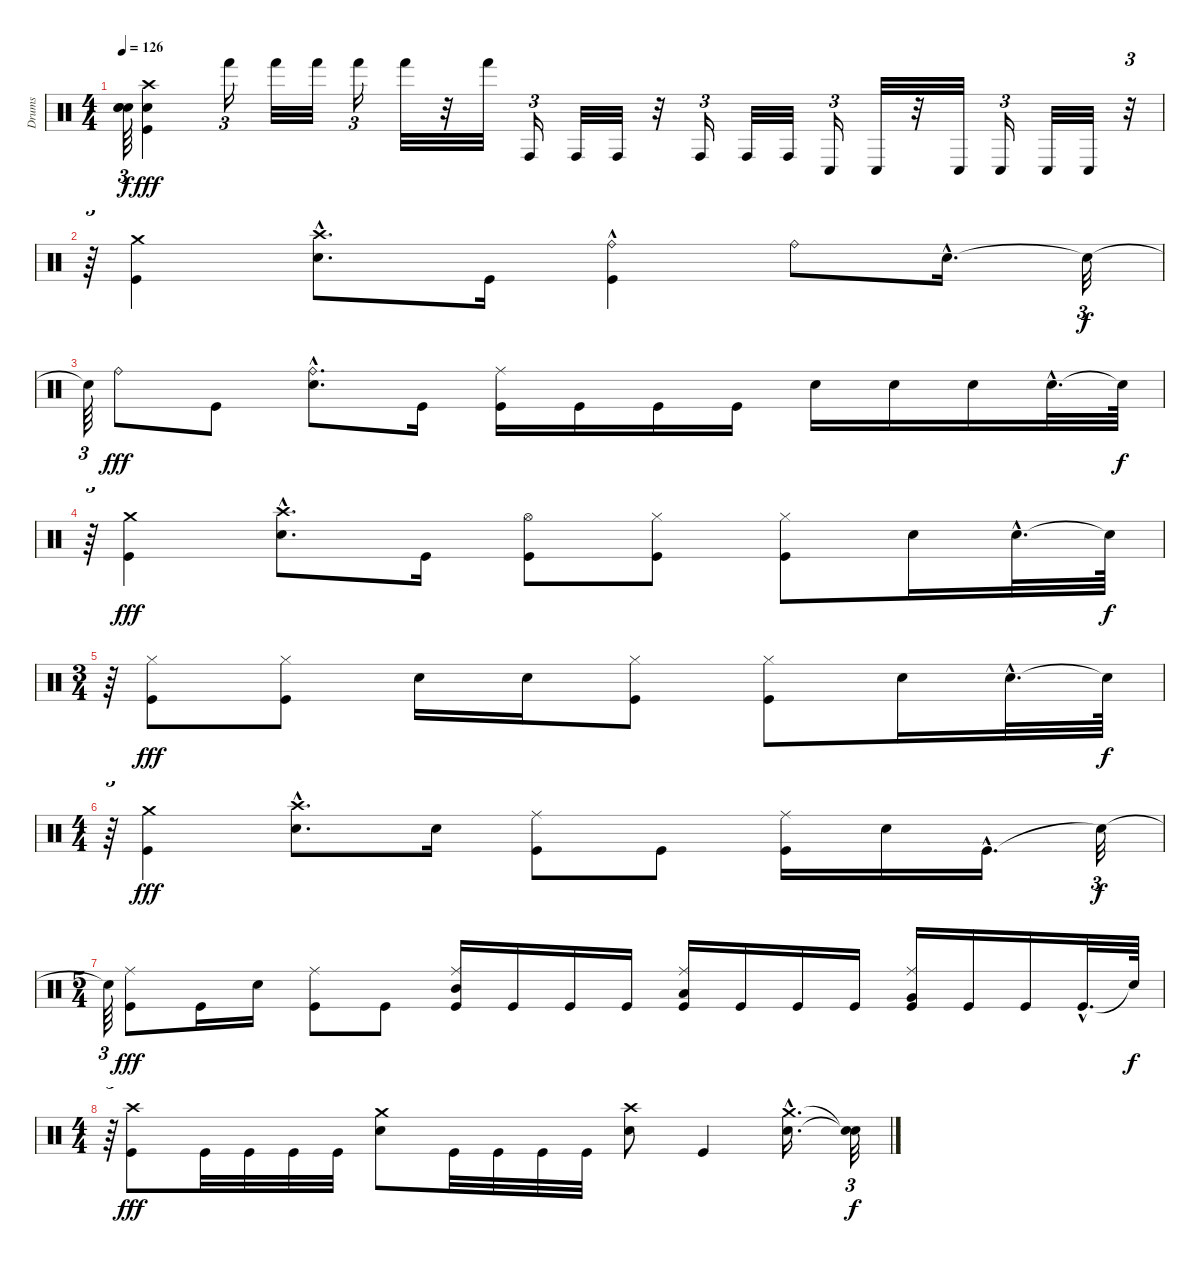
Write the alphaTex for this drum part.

\track ("Drums" "Drums") {instrument percussion}
\staff {score}
\articulation defaults
\ts (4 4)
\tempo 126
\clef neutral
\ks c
("Snare (hit)"{t} "Snare (hit)"{t} "Snare (hit)"{t}).64{tu (3 2) dy f} ("Kick (hit)" "Snare (hit) 2" "Crash high (hit)").4{dy fff} "Hand (hit)".16{tu (3 2)} "Hand (hit)".32 "Hand (hit)".32 "Hand (hit)".16{tu (3 2)} "Hand (hit)".32 r.32 "Hand (hit)".32 "Conga high (hit)".16{tu (3 2)} "Conga high (hit)".32 "Conga high (hit)".32 r.32 "Conga high (hit)".16{tu (3 2)} "Conga high (hit)".32 "Conga high (hit)".32 "Conga low (hit)".16{tu (3 2)} "Conga low (hit)".32 r.32 "Conga low (hit)".32 "Conga low (hit)".16{tu (3 2)} "Conga low (hit)".32 "Conga low (hit)".32 r.32{tu (3 2)} |
r.64{tu (3 2)} ("Kick (hit)" "Crash medium (hit)").4 ("Snare (hit) 2"{hac} "Crash high (hit)").8{d} "Kick (hit)".16 ("Kick (hit)"{hac} "Ride (bell)").4 "Ride (bell)".8 "Snare (hit) 2"{hac}.16{d} "Snare (hit)"{t}.32{tu (3 2) dy f} |
"Snare (hit)"{t}.64{tu (3 2)} "Ride (bell)".8{dy fff} "Kick (hit)".8 ("Snare (hit) 2"{hac} "Ride (bell)").8{d} "Kick (hit)".16 ("Kick (hit)" "Ride (middle)").16 "Kick (hit)".16 "Kick (hit)".16 "Kick (hit)".16 "Snare (hit) 2".16 "Snare (hit) 2".16 "Snare (hit) 2".16 "Snare (hit) 2"{hac}.32{d} "Snare (hit)"{t}.64{dy f} |
r.64{tu (3 2)} ("Kick (hit)" "Crash medium (hit)").4{dy fff} ("Snare (hit) 2"{hac} "Crash high (hit)").8{d} "Kick (hit)".16 ("Kick (hit)" "Hi-Hat (open)").8 ("Kick (hit)" "Hi-Hat (closed)").8 ("Kick (hit)" "Hi-Hat (closed)").8 "Snare (hit) 2".16 "Snare (hit) 2"{hac}.32{d} "Snare (hit)"{t}.64{dy f} |
\ts (3 4)
r.64{tu (3 2)} ("Kick (hit)" "Hi-Hat (closed)").8{dy fff} ("Kick (hit)" "Hi-Hat (closed)").8 "Snare (hit) 2".16 "Snare (hit) 2".16 ("Kick (hit)" "Hi-Hat (closed)").8 ("Kick (hit)" "Hi-Hat (closed)").8 "Snare (hit) 2".16 "Snare (hit) 2"{hac}.32{d} "Snare (hit)"{t}.64{dy f} |
\ts (4 4)
r.64{tu (3 2)} ("Kick (hit)" "Crash medium (hit)").4{dy fff} ("Snare (hit) 2"{hac} "Crash high (hit)").8{d} "Snare (hit) 2".16 ("Kick (hit)" "Ride (middle)").8 "Kick (hit)".8 ("Kick (hit)" "Ride (middle)").16 "Snare (hit) 2".16 "Kick (hit)"{hac}.16{d} "Snare (hit)"{t}.32{tu (3 2) dy f} |
\ts (5 4)
"Snare (hit)"{t}.64{tu (3 2)} ("Kick (hit)" "Ride (middle)").8{dy fff} "Kick (hit)".16 "Snare (hit) 2".16 ("Kick (hit)" "Ride (middle)").8 "Kick (hit)".8 ("Kick (hit)" "Mid Tom (hit)" "Ride (middle)").16 "Kick (hit)".16 "Kick (hit)".16 "Kick (hit)".16 ("Kick (hit)" "Low Tom (hit)" "Ride (middle)").16 "Kick (hit)".16 "Kick (hit)".16 "Kick (hit)".16 ("Kick (hit)" "Very Low Tom (hit)" "Ride (middle)").16 "Kick (hit)".16 "Kick (hit)".16 "Kick (hit)"{hac}.32{d} "Snare (hit)"{t}.64{dy f} |
\ts (4 4)
r.64{tu (3 2)} ("Kick (hit)" "Crash high (hit)").8{dy fff} "Kick (hit)".32 "Kick (hit)".32 "Kick (hit)".32 "Kick (hit)".32 ("Snare (hit) 2" "Crash medium (hit)").8 "Kick (hit)".32 "Kick (hit)".32 "Kick (hit)".32 "Kick (hit)".32 ("Snare (hit) 2" "Crash high (hit)").8 "Kick (hit)".4 ("Snare (hit) 2"{hac} "Crash medium (hit)"{hac}).16{d} ("Snare (hit)"{t} "Snare (hit)"{t}).32{tu (3 2) dy f}
